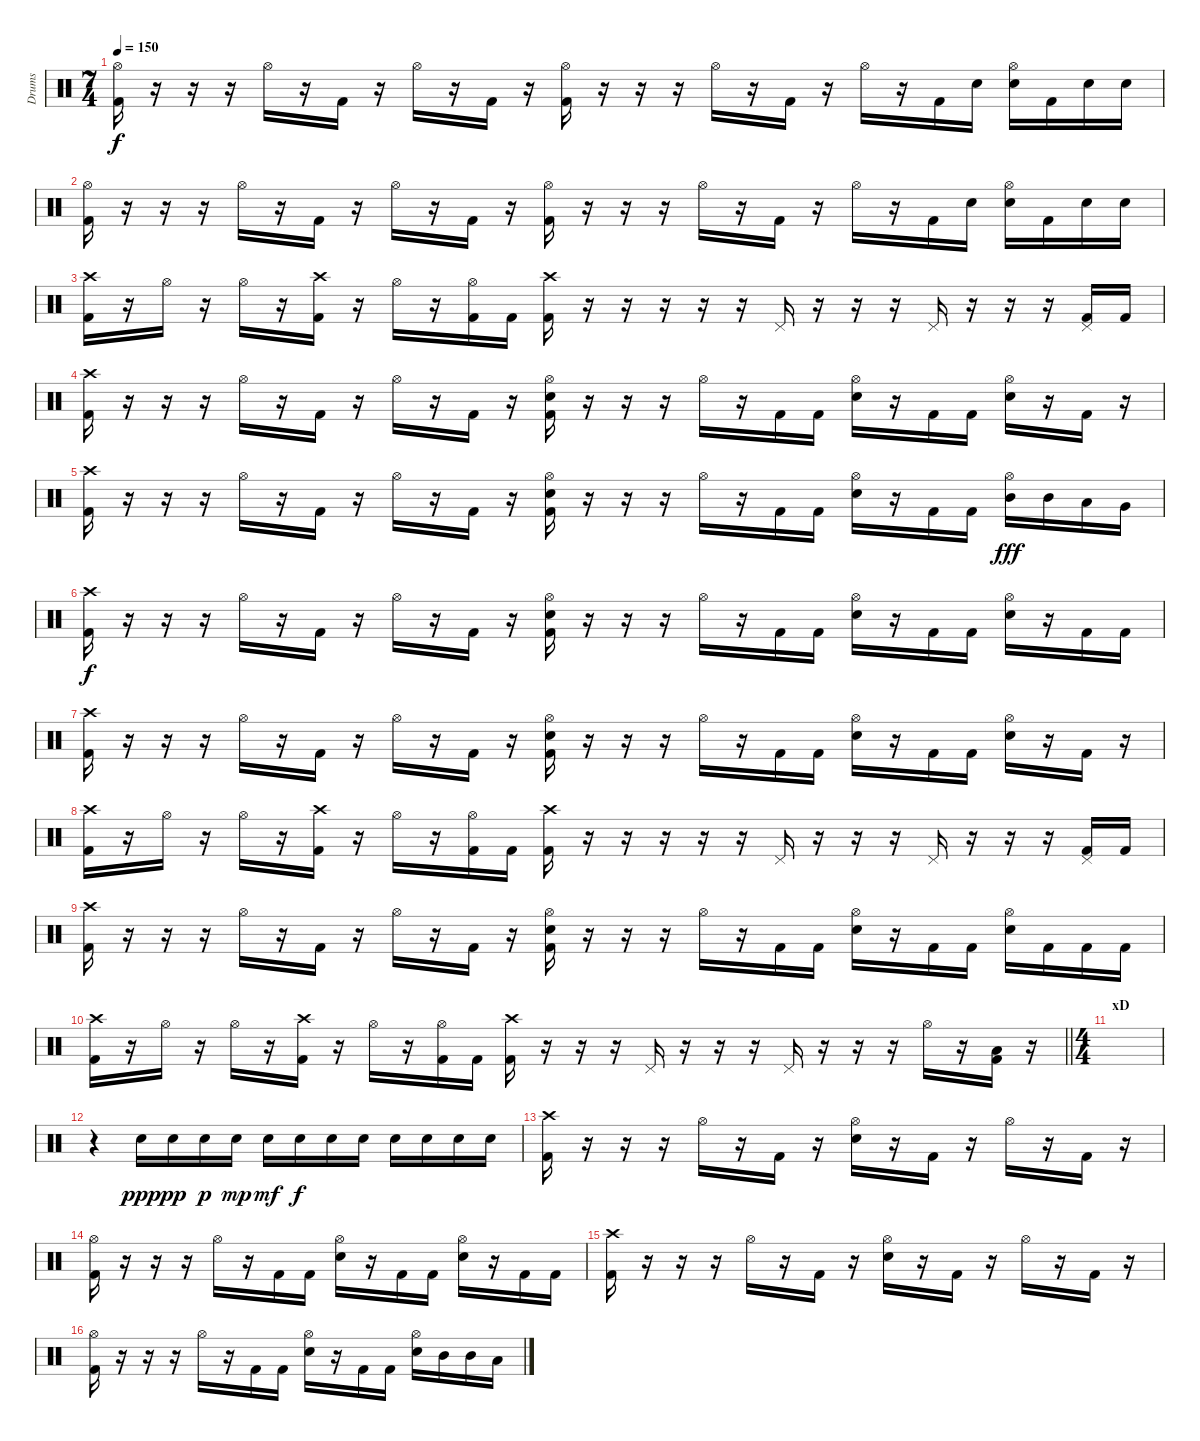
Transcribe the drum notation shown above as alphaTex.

\track ("Drums" "Drums") {instrument percussion}
\staff {score}
\articulation defaults
\ts (7 4)
\tempo 150
\clef neutral
\ks c
("Hi-Hat (open)" "Kick (hit) 2").16{dy f} r.16 r.16 r.16 "Hi-Hat (open)".16 r.16 "Kick (hit) 2".16 r.16 "Hi-Hat (open)".16 r.16 "Kick (hit) 2".16 r.16 ("Hi-Hat (open)" "Kick (hit) 2").16 r.16 r.16 r.16 "Hi-Hat (open)".16 r.16 "Kick (hit) 2".16 r.16 "Hi-Hat (open)".16 r.16 "Kick (hit) 2".16 "Electric Snare (hit)".16 ("Hi-Hat (open)" "Electric Snare (hit)").16 "Kick (hit) 2".16 "Electric Snare (hit)".16 "Electric Snare (hit)".16 |
("Hi-Hat (open)" "Kick (hit) 2").16 r.16 r.16 r.16 "Hi-Hat (open)".16 r.16 "Kick (hit) 2".16 r.16 "Hi-Hat (open)".16 r.16 "Kick (hit) 2".16 r.16 ("Hi-Hat (open)" "Kick (hit) 2").16 r.16 r.16 r.16 "Hi-Hat (open)".16 r.16 "Kick (hit) 2".16 r.16 "Hi-Hat (open)".16 r.16 "Kick (hit) 2".16 "Electric Snare (hit)".16 ("Hi-Hat (open)" "Electric Snare (hit)").16 "Kick (hit) 2".16 "Electric Snare (hit)".16 "Electric Snare (hit)".16 |
("Crash high (hit)" "Kick (hit) 2").16 r.16 "Hi-Hat (open)".16 r.16 "Hi-Hat (open)".16 r.16 ("Crash high (hit)" "Kick (hit) 2").16 r.16 "Hi-Hat (open)".16 r.16 ("Hi-Hat (open)" "Kick (hit) 2").16 "Kick (hit) 2".16 ("Crash high (hit)" "Kick (hit) 2").16 r.16 r.16 r.16 r.16 r.16 "Pedal Hi-Hat (hit)".16 r.16 r.16 r.16 "Pedal Hi-Hat (hit)".16 r.16 r.16 r.16 ("Pedal Hi-Hat (hit)" "Kick (hit) 2").16 "Kick (hit) 2".16 |
("Crash high (hit)" "Kick (hit) 2").16 r.16 r.16 r.16 "Hi-Hat (open)".16 r.16 "Kick (hit) 2".16 r.16 "Hi-Hat (open)".16 r.16 "Kick (hit) 2".16 r.16 ("Hi-Hat (open)" "Electric Snare (hit)" "Kick (hit) 2").16 r.16 r.16 r.16 "Hi-Hat (open)".16 r.16 "Kick (hit) 2".16 "Kick (hit) 2".16 ("Hi-Hat (open)" "Electric Snare (hit)").16 r.16 "Kick (hit) 2".16 "Kick (hit) 2".16 ("Hi-Hat (open)" "Electric Snare (hit)").16 r.16 "Kick (hit) 2".16 r.16 |
("Crash high (hit)" "Kick (hit) 2").16 r.16 r.16 r.16 "Hi-Hat (open)".16 r.16 "Kick (hit) 2".16 r.16 "Hi-Hat (open)".16 r.16 "Kick (hit) 2".16 r.16 ("Hi-Hat (open)" "Electric Snare (hit)" "Kick (hit) 2").16 r.16 r.16 r.16 "Hi-Hat (open)".16 r.16 "Kick (hit) 2".16 "Kick (hit) 2".16 ("Hi-Hat (open)" "Electric Snare (hit)").16 r.16 "Kick (hit) 2".16 "Kick (hit) 2".16 ("Hi-Hat (open)" "Mid Tom (hit)").16{dy fff} "Mid Tom (hit)".16 "Low Tom (hit)".16 "Very Low Tom (hit)".16 |
("Crash high (hit)" "Kick (hit) 2").16{dy f} r.16 r.16 r.16 "Hi-Hat (open)".16 r.16 "Kick (hit) 2".16 r.16 "Hi-Hat (open)".16 r.16 "Kick (hit) 2".16 r.16 ("Hi-Hat (open)" "Electric Snare (hit)" "Kick (hit) 2").16 r.16 r.16 r.16 "Hi-Hat (open)".16 r.16 "Kick (hit) 2".16 "Kick (hit) 2".16 ("Hi-Hat (open)" "Electric Snare (hit)").16 r.16 "Kick (hit) 2".16 "Kick (hit) 2".16 ("Hi-Hat (open)" "Electric Snare (hit)").16 r.16 "Kick (hit) 2".16 "Kick (hit) 2".16 |
("Crash high (hit)" "Kick (hit) 2").16 r.16 r.16 r.16 "Hi-Hat (open)".16 r.16 "Kick (hit) 2".16 r.16 "Hi-Hat (open)".16 r.16 "Kick (hit) 2".16 r.16 ("Hi-Hat (open)" "Electric Snare (hit)" "Kick (hit) 2").16 r.16 r.16 r.16 "Hi-Hat (open)".16 r.16 "Kick (hit) 2".16 "Kick (hit) 2".16 ("Hi-Hat (open)" "Electric Snare (hit)").16 r.16 "Kick (hit) 2".16 "Kick (hit) 2".16 ("Hi-Hat (open)" "Electric Snare (hit)").16 r.16 "Kick (hit) 2".16 r.16 |
("Crash high (hit)" "Kick (hit) 2").16 r.16 "Hi-Hat (open)".16 r.16 "Hi-Hat (open)".16 r.16 ("Crash high (hit)" "Kick (hit) 2").16 r.16 "Hi-Hat (open)".16 r.16 ("Hi-Hat (open)" "Kick (hit) 2").16 "Kick (hit) 2".16 ("Crash high (hit)" "Kick (hit) 2").16 r.16 r.16 r.16 r.16 r.16 "Pedal Hi-Hat (hit)".16 r.16 r.16 r.16 "Pedal Hi-Hat (hit)".16 r.16 r.16 r.16 ("Pedal Hi-Hat (hit)" "Kick (hit) 2").16 "Kick (hit) 2".16 |
("Crash high (hit)" "Kick (hit) 2").16 r.16 r.16 r.16 "Hi-Hat (open)".16 r.16 "Kick (hit) 2".16 r.16 "Hi-Hat (open)".16 r.16 "Kick (hit) 2".16 r.16 ("Hi-Hat (open)" "Electric Snare (hit)" "Kick (hit) 2").16 r.16 r.16 r.16 "Hi-Hat (open)".16 r.16 "Kick (hit) 2".16 "Kick (hit) 2".16 ("Hi-Hat (open)" "Electric Snare (hit)").16 r.16 "Kick (hit) 2".16 "Kick (hit) 2".16 ("Hi-Hat (open)" "Electric Snare (hit)").16 "Kick (hit) 2".16 "Kick (hit) 2".16 "Kick (hit) 2".16 |
\barLineRight lightlight
("Crash high (hit)" "Kick (hit) 2").16 r.16 "Hi-Hat (open)".16 r.16 "Hi-Hat (open)".16 r.16 ("Crash high (hit)" "Kick (hit) 2").16 r.16 "Hi-Hat (open)".16 r.16 ("Hi-Hat (open)" "Kick (hit) 2").16 "Kick (hit) 2".16 ("Crash high (hit)" "Kick (hit) 2").16 r.16 r.16 r.16 "Pedal Hi-Hat (hit)".16 r.16 r.16 r.16 "Pedal Hi-Hat (hit)".16 r.16 r.16 r.16 "Hi-Hat (open)".16 r.16 ("Low Tom (hit)" "Kick (hit) 2").16 r.16 |
\ts (4 4)
\section ("" "xD")
|
r.4 "Electric Snare (hit)".16{dy ppp} "Electric Snare (hit)".16{dy pp} "Electric Snare (hit)".16{dy p} "Electric Snare (hit)".16{dy mp} "Electric Snare (hit)".16{dy mf} "Electric Snare (hit)".16{dy f} "Electric Snare (hit)".16 "Electric Snare (hit)".16 "Electric Snare (hit)".16 "Electric Snare (hit)".16 "Electric Snare (hit)".16 "Electric Snare (hit)".16 |
("Crash high (hit)" "Kick (hit) 2").16 r.16 r.16 r.16 "Hi-Hat (open)".16 r.16 "Kick (hit) 2".16 r.16 ("Hi-Hat (open)" "Electric Snare (hit)").16 r.16 "Kick (hit) 2".16 r.16 "Hi-Hat (open)".16 r.16 "Kick (hit) 2".16 r.16 |
("Hi-Hat (open)" "Kick (hit) 2").16 r.16 r.16 r.16 "Hi-Hat (open)".16 r.16 "Kick (hit) 2".16 "Kick (hit) 2".16 ("Hi-Hat (open)" "Electric Snare (hit)").16 r.16 "Kick (hit) 2".16 "Kick (hit) 2".16 ("Hi-Hat (open)" "Electric Snare (hit)").16 r.16 "Kick (hit) 2".16 "Kick (hit) 2".16 |
("Crash high (hit)" "Kick (hit) 2").16 r.16 r.16 r.16 "Hi-Hat (open)".16 r.16 "Kick (hit) 2".16 r.16 ("Hi-Hat (open)" "Electric Snare (hit)").16 r.16 "Kick (hit) 2".16 r.16 "Hi-Hat (open)".16 r.16 "Kick (hit) 2".16 r.16 |
("Hi-Hat (open)" "Kick (hit) 2").16 r.16 r.16 r.16 "Hi-Hat (open)".16 r.16 "Kick (hit) 2".16 "Kick (hit) 2".16 ("Hi-Hat (open)" "Electric Snare (hit)").16 r.16 "Kick (hit) 2".16 "Kick (hit) 2".16 ("Hi-Hat (open)" "Electric Snare (hit)").16 "Mid Tom (hit)".16 "Mid Tom (hit)".16 "Low Tom (hit)".16
